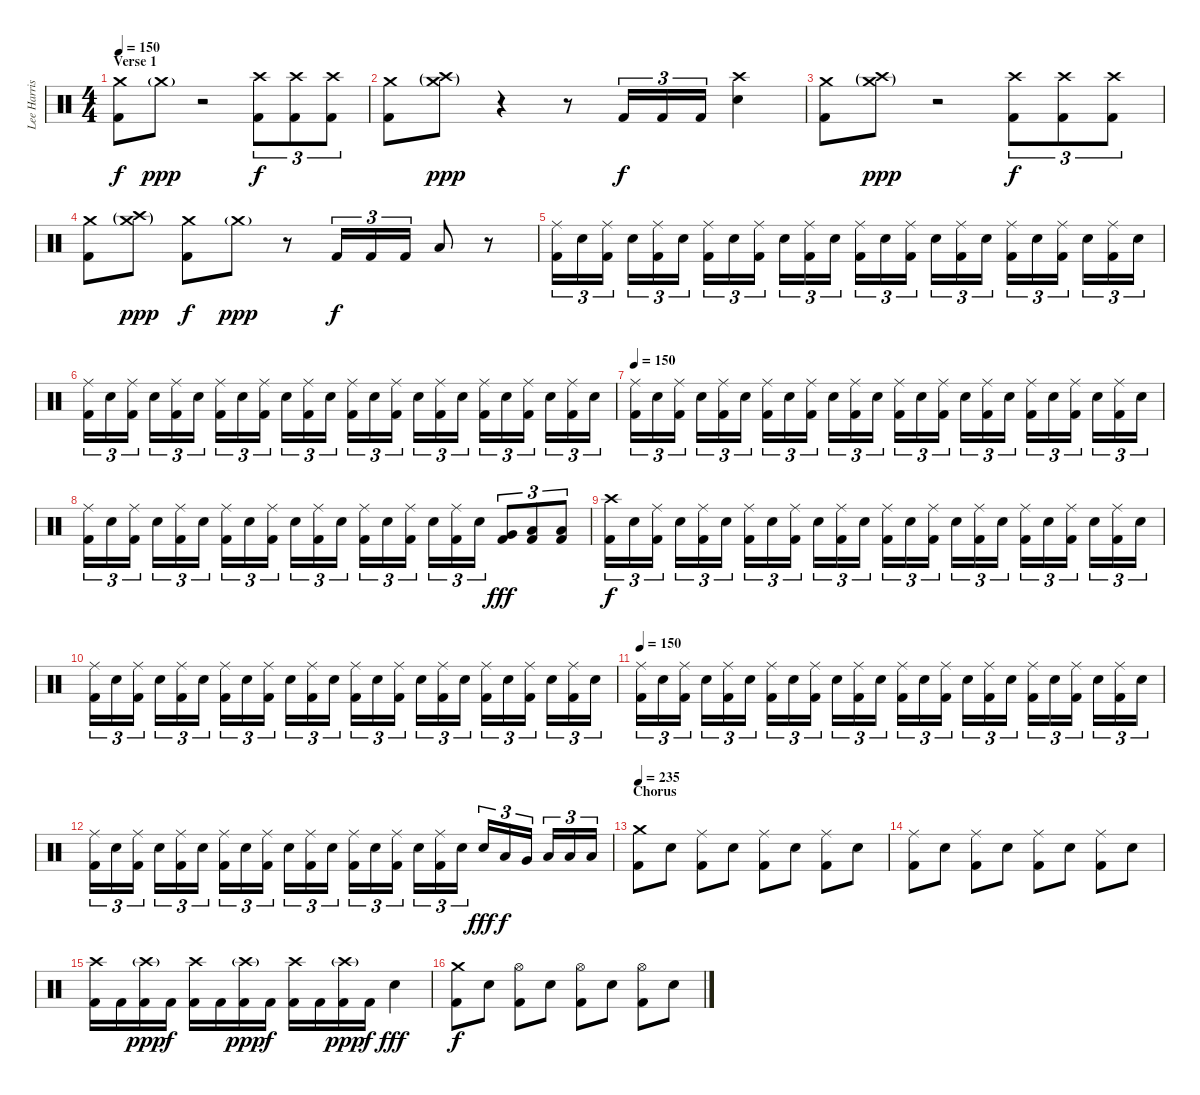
\track ("Lee Harrison" "Lee Harris") {instrument percussion}
\staff {score}
\articulation defaults
\ts (4 4)
\section ("" "Verse 1")
\tempo 150
\clef neutral
\ks c
("Crash medium (hit)" "Kick (hit) 2").8{dy f} "Crash medium (hit)"{g}.8{dy ppp} r.2 ("Crash high (hit)" "Kick (hit) 2").8{tu (3 2) dy f} ("Crash high (hit)" "Kick (hit) 2").8{tu (3 2)} ("Crash high (hit)" "Kick (hit) 2").8{tu (3 2)} |
("Crash medium (hit)" "Kick (hit) 2").8 ("Crash medium (hit)"{g} "Crash high (hit)"{g}).8{dy ppp} r.4 r.8 "Kick (hit) 2".16{tu (3 2) dy f} "Kick (hit) 2".16{tu (3 2)} "Kick (hit) 2".16{tu (3 2)} ("Crash high (hit)" "Electric Snare (hit)").4 |
("Crash medium (hit)" "Kick (hit) 2").8 ("Crash medium (hit)"{g} "Crash high (hit)"{g}).8{dy ppp} r.2 ("Crash high (hit)" "Kick (hit) 2").8{tu (3 2) dy f} ("Crash high (hit)" "Kick (hit) 2").8{tu (3 2)} ("Crash high (hit)" "Kick (hit) 2").8{tu (3 2)} |
("Crash medium (hit)" "Kick (hit) 2").8 ("Crash medium (hit)"{g} "Crash high (hit)"{g}).8{dy ppp} ("Crash medium (hit)" "Kick (hit) 2").8{dy f} "Crash medium (hit)"{g}.8{dy ppp} r.8 "Kick (hit) 2".16{tu (3 2) dy f} "Kick (hit) 2".16{tu (3 2)} "Kick (hit) 2".16{tu (3 2)} "Low Floor Tom (hit)".8 r.8 |
("Ride (middle)" "Kick (hit) 2").16{tu (3 2)} "Electric Snare (hit)".16{tu (3 2)} ("Ride (middle)" "Kick (hit) 2").16{tu (3 2)} "Electric Snare (hit)".16{tu (3 2)} ("Ride (middle)" "Kick (hit) 2").16{tu (3 2)} "Electric Snare (hit)".16{tu (3 2)} ("Ride (middle)" "Kick (hit) 2").16{tu (3 2)} "Electric Snare (hit)".16{tu (3 2)} ("Ride (middle)" "Kick (hit) 2").16{tu (3 2)} "Electric Snare (hit)".16{tu (3 2)} ("Ride (middle)" "Kick (hit) 2").16{tu (3 2)} "Electric Snare (hit)".16{tu (3 2)} ("Ride (middle)" "Kick (hit) 2").16{tu (3 2)} "Electric Snare (hit)".16{tu (3 2)} ("Ride (middle)" "Kick (hit) 2").16{tu (3 2)} "Electric Snare (hit)".16{tu (3 2)} ("Ride (middle)" "Kick (hit) 2").16{tu (3 2)} "Electric Snare (hit)".16{tu (3 2)} ("Ride (middle)" "Kick (hit) 2").16{tu (3 2)} "Electric Snare (hit)".16{tu (3 2)} ("Ride (middle)" "Kick (hit) 2").16{tu (3 2)} "Electric Snare (hit)".16{tu (3 2)} ("Ride (middle)" "Kick (hit) 2").16{tu (3 2)} "Electric Snare (hit)".16{tu (3 2)} |
("Ride (middle)" "Kick (hit) 2").16{tu (3 2)} "Electric Snare (hit)".16{tu (3 2)} ("Ride (middle)" "Kick (hit) 2").16{tu (3 2)} "Electric Snare (hit)".16{tu (3 2)} ("Ride (middle)" "Kick (hit) 2").16{tu (3 2)} "Electric Snare (hit)".16{tu (3 2)} ("Ride (middle)" "Kick (hit) 2").16{tu (3 2)} "Electric Snare (hit)".16{tu (3 2)} ("Ride (middle)" "Kick (hit) 2").16{tu (3 2)} "Electric Snare (hit)".16{tu (3 2)} ("Ride (middle)" "Kick (hit) 2").16{tu (3 2)} "Electric Snare (hit)".16{tu (3 2)} ("Ride (middle)" "Kick (hit) 2").16{tu (3 2)} "Electric Snare (hit)".16{tu (3 2)} ("Ride (middle)" "Kick (hit) 2").16{tu (3 2)} "Electric Snare (hit)".16{tu (3 2)} ("Ride (middle)" "Kick (hit) 2").16{tu (3 2)} "Electric Snare (hit)".16{tu (3 2)} ("Ride (middle)" "Kick (hit) 2").16{tu (3 2)} "Electric Snare (hit)".16{tu (3 2)} ("Ride (middle)" "Kick (hit) 2").16{tu (3 2)} "Electric Snare (hit)".16{tu (3 2)} ("Ride (middle)" "Kick (hit) 2").16{tu (3 2)} "Electric Snare (hit)".16{tu (3 2)} |
\tempo 150
("Ride (middle)" "Kick (hit) 2").16{tu (3 2)} "Electric Snare (hit)".16{tu (3 2)} ("Ride (middle)" "Kick (hit) 2").16{tu (3 2)} "Electric Snare (hit)".16{tu (3 2)} ("Ride (middle)" "Kick (hit) 2").16{tu (3 2)} "Electric Snare (hit)".16{tu (3 2)} ("Ride (middle)" "Kick (hit) 2").16{tu (3 2)} "Electric Snare (hit)".16{tu (3 2)} ("Ride (middle)" "Kick (hit) 2").16{tu (3 2)} "Electric Snare (hit)".16{tu (3 2)} ("Ride (middle)" "Kick (hit) 2").16{tu (3 2)} "Electric Snare (hit)".16{tu (3 2)} ("Ride (middle)" "Kick (hit) 2").16{tu (3 2)} "Electric Snare (hit)".16{tu (3 2)} ("Ride (middle)" "Kick (hit) 2").16{tu (3 2)} "Electric Snare (hit)".16{tu (3 2)} ("Ride (middle)" "Kick (hit) 2").16{tu (3 2)} "Electric Snare (hit)".16{tu (3 2)} ("Ride (middle)" "Kick (hit) 2").16{tu (3 2)} "Electric Snare (hit)".16{tu (3 2)} ("Ride (middle)" "Kick (hit) 2").16{tu (3 2)} "Electric Snare (hit)".16{tu (3 2)} ("Ride (middle)" "Kick (hit) 2").16{tu (3 2)} "Electric Snare (hit)".16{tu (3 2)} |
("Ride (middle)" "Kick (hit) 2").16{tu (3 2)} "Electric Snare (hit)".16{tu (3 2)} ("Ride (middle)" "Kick (hit) 2").16{tu (3 2)} "Electric Snare (hit)".16{tu (3 2)} ("Ride (middle)" "Kick (hit) 2").16{tu (3 2)} "Electric Snare (hit)".16{tu (3 2)} ("Ride (middle)" "Kick (hit) 2").16{tu (3 2)} "Electric Snare (hit)".16{tu (3 2)} ("Ride (middle)" "Kick (hit) 2").16{tu (3 2)} "Electric Snare (hit)".16{tu (3 2)} ("Ride (middle)" "Kick (hit) 2").16{tu (3 2)} "Electric Snare (hit)".16{tu (3 2)} ("Ride (middle)" "Kick (hit) 2").16{tu (3 2)} "Electric Snare (hit)".16{tu (3 2)} ("Ride (middle)" "Kick (hit) 2").16{tu (3 2)} "Electric Snare (hit)".16{tu (3 2)} ("Ride (middle)" "Kick (hit) 2").16{tu (3 2)} "Electric Snare (hit)".16{tu (3 2)} ("Very Low Tom (hit)" "Kick (hit) 2").8{tu (3 2) dy fff} ("Low Floor Tom (hit)" "Kick (hit) 2").8{tu (3 2)} ("Low Floor Tom (hit)" "Kick (hit) 2").8{tu (3 2)} |
("Crash high (hit)" "Kick (hit) 2").16{tu (3 2) dy f} "Electric Snare (hit)".16{tu (3 2)} ("Ride (middle)" "Kick (hit) 2").16{tu (3 2)} "Electric Snare (hit)".16{tu (3 2)} ("Ride (middle)" "Kick (hit) 2").16{tu (3 2)} "Electric Snare (hit)".16{tu (3 2)} ("Ride (middle)" "Kick (hit) 2").16{tu (3 2)} "Electric Snare (hit)".16{tu (3 2)} ("Ride (middle)" "Kick (hit) 2").16{tu (3 2)} "Electric Snare (hit)".16{tu (3 2)} ("Ride (middle)" "Kick (hit) 2").16{tu (3 2)} "Electric Snare (hit)".16{tu (3 2)} ("Ride (middle)" "Kick (hit) 2").16{tu (3 2)} "Electric Snare (hit)".16{tu (3 2)} ("Ride (middle)" "Kick (hit) 2").16{tu (3 2)} "Electric Snare (hit)".16{tu (3 2)} ("Ride (middle)" "Kick (hit) 2").16{tu (3 2)} "Electric Snare (hit)".16{tu (3 2)} ("Ride (middle)" "Kick (hit) 2").16{tu (3 2)} "Electric Snare (hit)".16{tu (3 2)} ("Ride (middle)" "Kick (hit) 2").16{tu (3 2)} "Electric Snare (hit)".16{tu (3 2)} ("Ride (middle)" "Kick (hit) 2").16{tu (3 2)} "Electric Snare (hit)".16{tu (3 2)} |
("Ride (middle)" "Kick (hit) 2").16{tu (3 2)} "Electric Snare (hit)".16{tu (3 2)} ("Ride (middle)" "Kick (hit) 2").16{tu (3 2)} "Electric Snare (hit)".16{tu (3 2)} ("Ride (middle)" "Kick (hit) 2").16{tu (3 2)} "Electric Snare (hit)".16{tu (3 2)} ("Ride (middle)" "Kick (hit) 2").16{tu (3 2)} "Electric Snare (hit)".16{tu (3 2)} ("Ride (middle)" "Kick (hit) 2").16{tu (3 2)} "Electric Snare (hit)".16{tu (3 2)} ("Ride (middle)" "Kick (hit) 2").16{tu (3 2)} "Electric Snare (hit)".16{tu (3 2)} ("Ride (middle)" "Kick (hit) 2").16{tu (3 2)} "Electric Snare (hit)".16{tu (3 2)} ("Ride (middle)" "Kick (hit) 2").16{tu (3 2)} "Electric Snare (hit)".16{tu (3 2)} ("Ride (middle)" "Kick (hit) 2").16{tu (3 2)} "Electric Snare (hit)".16{tu (3 2)} ("Ride (middle)" "Kick (hit) 2").16{tu (3 2)} "Electric Snare (hit)".16{tu (3 2)} ("Ride (middle)" "Kick (hit) 2").16{tu (3 2)} "Electric Snare (hit)".16{tu (3 2)} ("Ride (middle)" "Kick (hit) 2").16{tu (3 2)} "Electric Snare (hit)".16{tu (3 2)} |
\tempo 150
("Ride (middle)" "Kick (hit) 2").16{tu (3 2)} "Electric Snare (hit)".16{tu (3 2)} ("Ride (middle)" "Kick (hit) 2").16{tu (3 2)} "Electric Snare (hit)".16{tu (3 2)} ("Ride (middle)" "Kick (hit) 2").16{tu (3 2)} "Electric Snare (hit)".16{tu (3 2)} ("Ride (middle)" "Kick (hit) 2").16{tu (3 2)} "Electric Snare (hit)".16{tu (3 2)} ("Ride (middle)" "Kick (hit) 2").16{tu (3 2)} "Electric Snare (hit)".16{tu (3 2)} ("Ride (middle)" "Kick (hit) 2").16{tu (3 2)} "Electric Snare (hit)".16{tu (3 2)} ("Ride (middle)" "Kick (hit) 2").16{tu (3 2)} "Electric Snare (hit)".16{tu (3 2)} ("Ride (middle)" "Kick (hit) 2").16{tu (3 2)} "Electric Snare (hit)".16{tu (3 2)} ("Ride (middle)" "Kick (hit) 2").16{tu (3 2)} "Electric Snare (hit)".16{tu (3 2)} ("Ride (middle)" "Kick (hit) 2").16{tu (3 2)} "Electric Snare (hit)".16{tu (3 2)} ("Ride (middle)" "Kick (hit) 2").16{tu (3 2)} "Electric Snare (hit)".16{tu (3 2)} ("Ride (middle)" "Kick (hit) 2").16{tu (3 2)} "Electric Snare (hit)".16{tu (3 2)} |
("Ride (middle)" "Kick (hit) 2").16{tu (3 2)} "Electric Snare (hit)".16{tu (3 2)} ("Ride (middle)" "Kick (hit) 2").16{tu (3 2)} "Electric Snare (hit)".16{tu (3 2)} ("Ride (middle)" "Kick (hit) 2").16{tu (3 2)} "Electric Snare (hit)".16{tu (3 2)} ("Ride (middle)" "Kick (hit) 2").16{tu (3 2)} "Electric Snare (hit)".16{tu (3 2)} ("Ride (middle)" "Kick (hit) 2").16{tu (3 2)} "Electric Snare (hit)".16{tu (3 2)} ("Ride (middle)" "Kick (hit) 2").16{tu (3 2)} "Electric Snare (hit)".16{tu (3 2)} ("Ride (middle)" "Kick (hit) 2").16{tu (3 2)} "Electric Snare (hit)".16{tu (3 2)} ("Ride (middle)" "Kick (hit) 2").16{tu (3 2)} "Electric Snare (hit)".16{tu (3 2)} ("Ride (middle)" "Kick (hit) 2").16{tu (3 2)} "Electric Snare (hit)".16{tu (3 2)} "Electric Snare (hit)".16{tu (3 2) dy fff} "Low Tom (hit)".16{tu (3 2) dy f} "Very Low Tom (hit)".16{tu (3 2)} "Low Floor Tom (hit)".16{tu (3 2)} "Low Floor Tom (hit)".16{tu (3 2)} "Low Floor Tom (hit)".16{tu (3 2)} |
\section ("" "Chorus")
\tempo 235
("Crash medium (hit)" "Kick (hit) 2").8 "Electric Snare (hit)".8 ("Ride (middle)" "Kick (hit) 2").8 "Electric Snare (hit)".8 ("Ride (middle)" "Kick (hit) 2").8 "Electric Snare (hit)".8 ("Ride (middle)" "Kick (hit) 2").8 "Electric Snare (hit)".8 |
("Ride (middle)" "Kick (hit) 2").8 "Electric Snare (hit)".8 ("Ride (middle)" "Kick (hit) 2").8 "Electric Snare (hit)".8 ("Ride (middle)" "Kick (hit) 2").8 "Electric Snare (hit)".8 ("Ride (middle)" "Kick (hit) 2").8 "Electric Snare (hit)".8 |
("Crash high (hit)" "Kick (hit) 2").16 "Kick (hit) 2".16 ("Crash high (hit)"{g} "Kick (hit) 2").16{dy ppp} "Kick (hit) 2".16{dy f} ("Crash high (hit)" "Kick (hit) 2").16 "Kick (hit) 2".16 ("Crash high (hit)"{g} "Kick (hit) 2").16{dy ppp} "Kick (hit) 2".16{dy f} ("Crash high (hit)" "Kick (hit) 2").16 "Kick (hit) 2".16 ("Crash high (hit)"{g} "Kick (hit) 2").16{dy ppp} "Kick (hit) 2".16{dy f} "Electric Snare (hit)".4{dy fff} |
("Crash medium (hit)" "Kick (hit) 2").8{dy f} "Electric Snare (hit)".8 ("Hi-Hat (open)" "Kick (hit) 2").8 "Electric Snare (hit)".8 ("Hi-Hat (open)" "Kick (hit) 2").8 "Electric Snare (hit)".8 ("Hi-Hat (open)" "Kick (hit) 2").8 "Electric Snare (hit)".8
